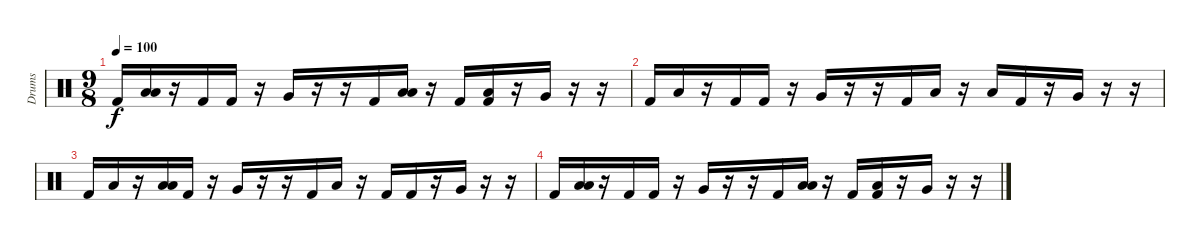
\track ("Drums" "Drums") {instrument percussion}
\staff {score}
\articulation defaults
\ts (9 8)
\tempo 100
\clef neutral
\ks c "Kick (hit) 2".16{dy f volume 0}
("Low Floor Tom (hit)" "Low Floor Tom (hit)").16{bd 480} r.16 "Kick (hit) 2".16 "Kick (hit) 2".16 r.16 "Very Low Tom (hit)".16 r.16 r.16 "Kick (hit) 2".16 ("Low Floor Tom (hit)" "Low Floor Tom (hit)").16{bd 60} r.16 "Kick (hit) 2".16 ("Low Floor Tom (hit)" "Kick (hit) 2").16 r.16 "Very Low Tom (hit)".16 r.16 r.16 |
"Kick (hit) 2".16 "Low Floor Tom (hit)".16 r.16 "Kick (hit) 2".16 "Kick (hit) 2".16 r.16 "Very Low Tom (hit)".16 r.16 r.16 "Kick (hit) 2".16 "Low Floor Tom (hit)".16 r.16 "Low Floor Tom (hit)".16 "Kick (hit) 2".16 r.16 "Very Low Tom (hit)".16 r.16 r.16 |
"Kick (hit) 2".16 "Low Floor Tom (hit)".16 r.16 ("Low Floor Tom (hit)" "Low Floor Tom (hit)").16{bd 480} "Kick (hit) 2".16 r.16 "Very Low Tom (hit)".16 r.16 r.16 "Kick (hit) 2".16 "Low Floor Tom (hit)".16 r.16 "Kick (hit) 2".16 "Kick (hit) 2".16 r.16 "Very Low Tom (hit)".16 r.16 r.16 |
"Kick (hit) 2".16 ("Low Floor Tom (hit)" "Low Floor Tom (hit)").16{bd 480} r.16 "Kick (hit) 2".16 "Kick (hit) 2".16 r.16 "Very Low Tom (hit)".16 r.16 r.16 "Kick (hit) 2".16 ("Low Floor Tom (hit)" "Low Floor Tom (hit)").16{bd 60} r.16 "Kick (hit) 2".16 ("Low Floor Tom (hit)" "Kick (hit) 2").16 r.16 "Very Low Tom (hit)".16 r.16 r.16
